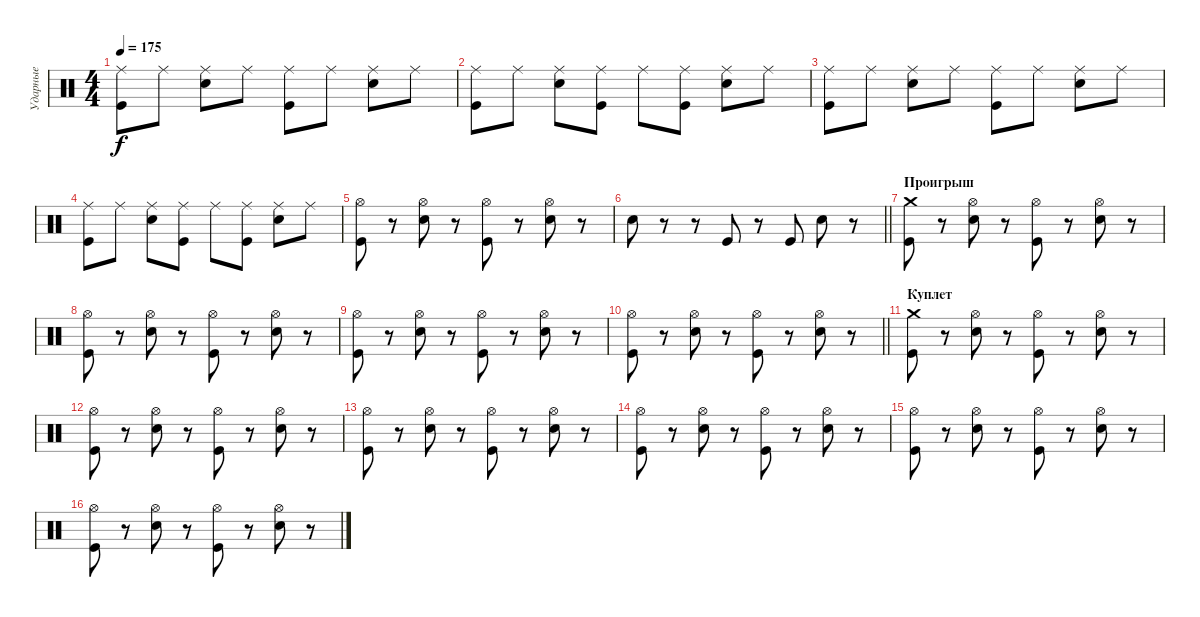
\track ("Ударные" "Ударные") {instrument percussion}
\staff {score}
\articulation defaults
\ts (4 4)
\tempo 175
\clef neutral
\ks c
("Ride (middle)" "Kick (hit)").8{dy f} "Ride (middle)".8 ("Ride (middle)" "Electric Snare (hit)").8 "Ride (middle)".8 ("Ride (middle)" "Kick (hit)").8 "Ride (middle)".8 ("Ride (middle)" "Electric Snare (hit)").8 "Ride (middle)".8 |
("Ride (middle)" "Kick (hit)").8 "Ride (middle)".8 ("Ride (middle)" "Electric Snare (hit)").8 ("Ride (middle)" "Kick (hit)").8 "Ride (middle)".8 ("Ride (middle)" "Kick (hit)").8 ("Ride (middle)" "Electric Snare (hit)").8 "Ride (middle)".8 |
("Ride (middle)" "Kick (hit)").8 "Ride (middle)".8 ("Ride (middle)" "Electric Snare (hit)").8 "Ride (middle)".8 ("Ride (middle)" "Kick (hit)").8 "Ride (middle)".8 ("Ride (middle)" "Electric Snare (hit)").8 "Ride (middle)".8 |
("Ride (middle)" "Kick (hit)").8 "Ride (middle)".8 ("Ride (middle)" "Electric Snare (hit)").8 ("Ride (middle)" "Kick (hit)").8 "Ride (middle)".8 ("Ride (middle)" "Kick (hit)").8 ("Ride (middle)" "Electric Snare (hit)").8 "Ride (middle)".8 |
("Hi-Hat (open)" "Kick (hit)").8 r.8 ("Hi-Hat (open)" "Electric Snare (hit)").8 r.8 ("Hi-Hat (open)" "Kick (hit)").8 r.8 ("Hi-Hat (open)" "Electric Snare (hit)").8 r.8 |
\barLineRight lightlight "Electric Snare (hit)".8
r.8 r.8 "Kick (hit)".8 r.8 "Kick (hit)".8 "Electric Snare (hit)".8 r.8 |
\section ("" "Проигрыш")
("Crash medium (hit)" "Kick (hit)").8 r.8 ("Hi-Hat (open)" "Electric Snare (hit)").8 r.8 ("Hi-Hat (open)" "Kick (hit)").8 r.8 ("Hi-Hat (open)" "Electric Snare (hit)").8 r.8 |
("Hi-Hat (open)" "Kick (hit)").8 r.8 ("Hi-Hat (open)" "Electric Snare (hit)").8 r.8 ("Hi-Hat (open)" "Kick (hit)").8 r.8 ("Hi-Hat (open)" "Electric Snare (hit)").8 r.8 |
("Hi-Hat (open)" "Kick (hit)").8 r.8 ("Hi-Hat (open)" "Electric Snare (hit)").8 r.8 ("Hi-Hat (open)" "Kick (hit)").8 r.8 ("Hi-Hat (open)" "Electric Snare (hit)").8 r.8 |
\barLineRight lightlight
("Hi-Hat (open)" "Kick (hit)").8 r.8 ("Hi-Hat (open)" "Electric Snare (hit)").8 r.8 ("Hi-Hat (open)" "Kick (hit)").8 r.8 ("Hi-Hat (open)" "Electric Snare (hit)").8 r.8 |
\section ("" "Куплет")
("Crash medium (hit)" "Kick (hit)").8 r.8 ("Hi-Hat (open)" "Electric Snare (hit)").8 r.8 ("Hi-Hat (open)" "Kick (hit)").8 r.8 ("Hi-Hat (open)" "Electric Snare (hit)").8 r.8 |
("Hi-Hat (open)" "Kick (hit)").8 r.8 ("Hi-Hat (open)" "Electric Snare (hit)").8 r.8 ("Hi-Hat (open)" "Kick (hit)").8 r.8 ("Hi-Hat (open)" "Electric Snare (hit)").8 r.8 |
("Hi-Hat (open)" "Kick (hit)").8 r.8 ("Hi-Hat (open)" "Electric Snare (hit)").8 r.8 ("Hi-Hat (open)" "Kick (hit)").8 r.8 ("Hi-Hat (open)" "Electric Snare (hit)").8 r.8 |
("Hi-Hat (open)" "Kick (hit)").8 r.8 ("Hi-Hat (open)" "Electric Snare (hit)").8 r.8 ("Hi-Hat (open)" "Kick (hit)").8 r.8 ("Hi-Hat (open)" "Electric Snare (hit)").8 r.8 |
("Hi-Hat (open)" "Kick (hit)").8 r.8 ("Hi-Hat (open)" "Electric Snare (hit)").8 r.8 ("Hi-Hat (open)" "Kick (hit)").8 r.8 ("Hi-Hat (open)" "Electric Snare (hit)").8 r.8 |
("Hi-Hat (open)" "Kick (hit)").8 r.8 ("Hi-Hat (open)" "Electric Snare (hit)").8 r.8 ("Hi-Hat (open)" "Kick (hit)").8 r.8 ("Hi-Hat (open)" "Electric Snare (hit)").8 r.8
